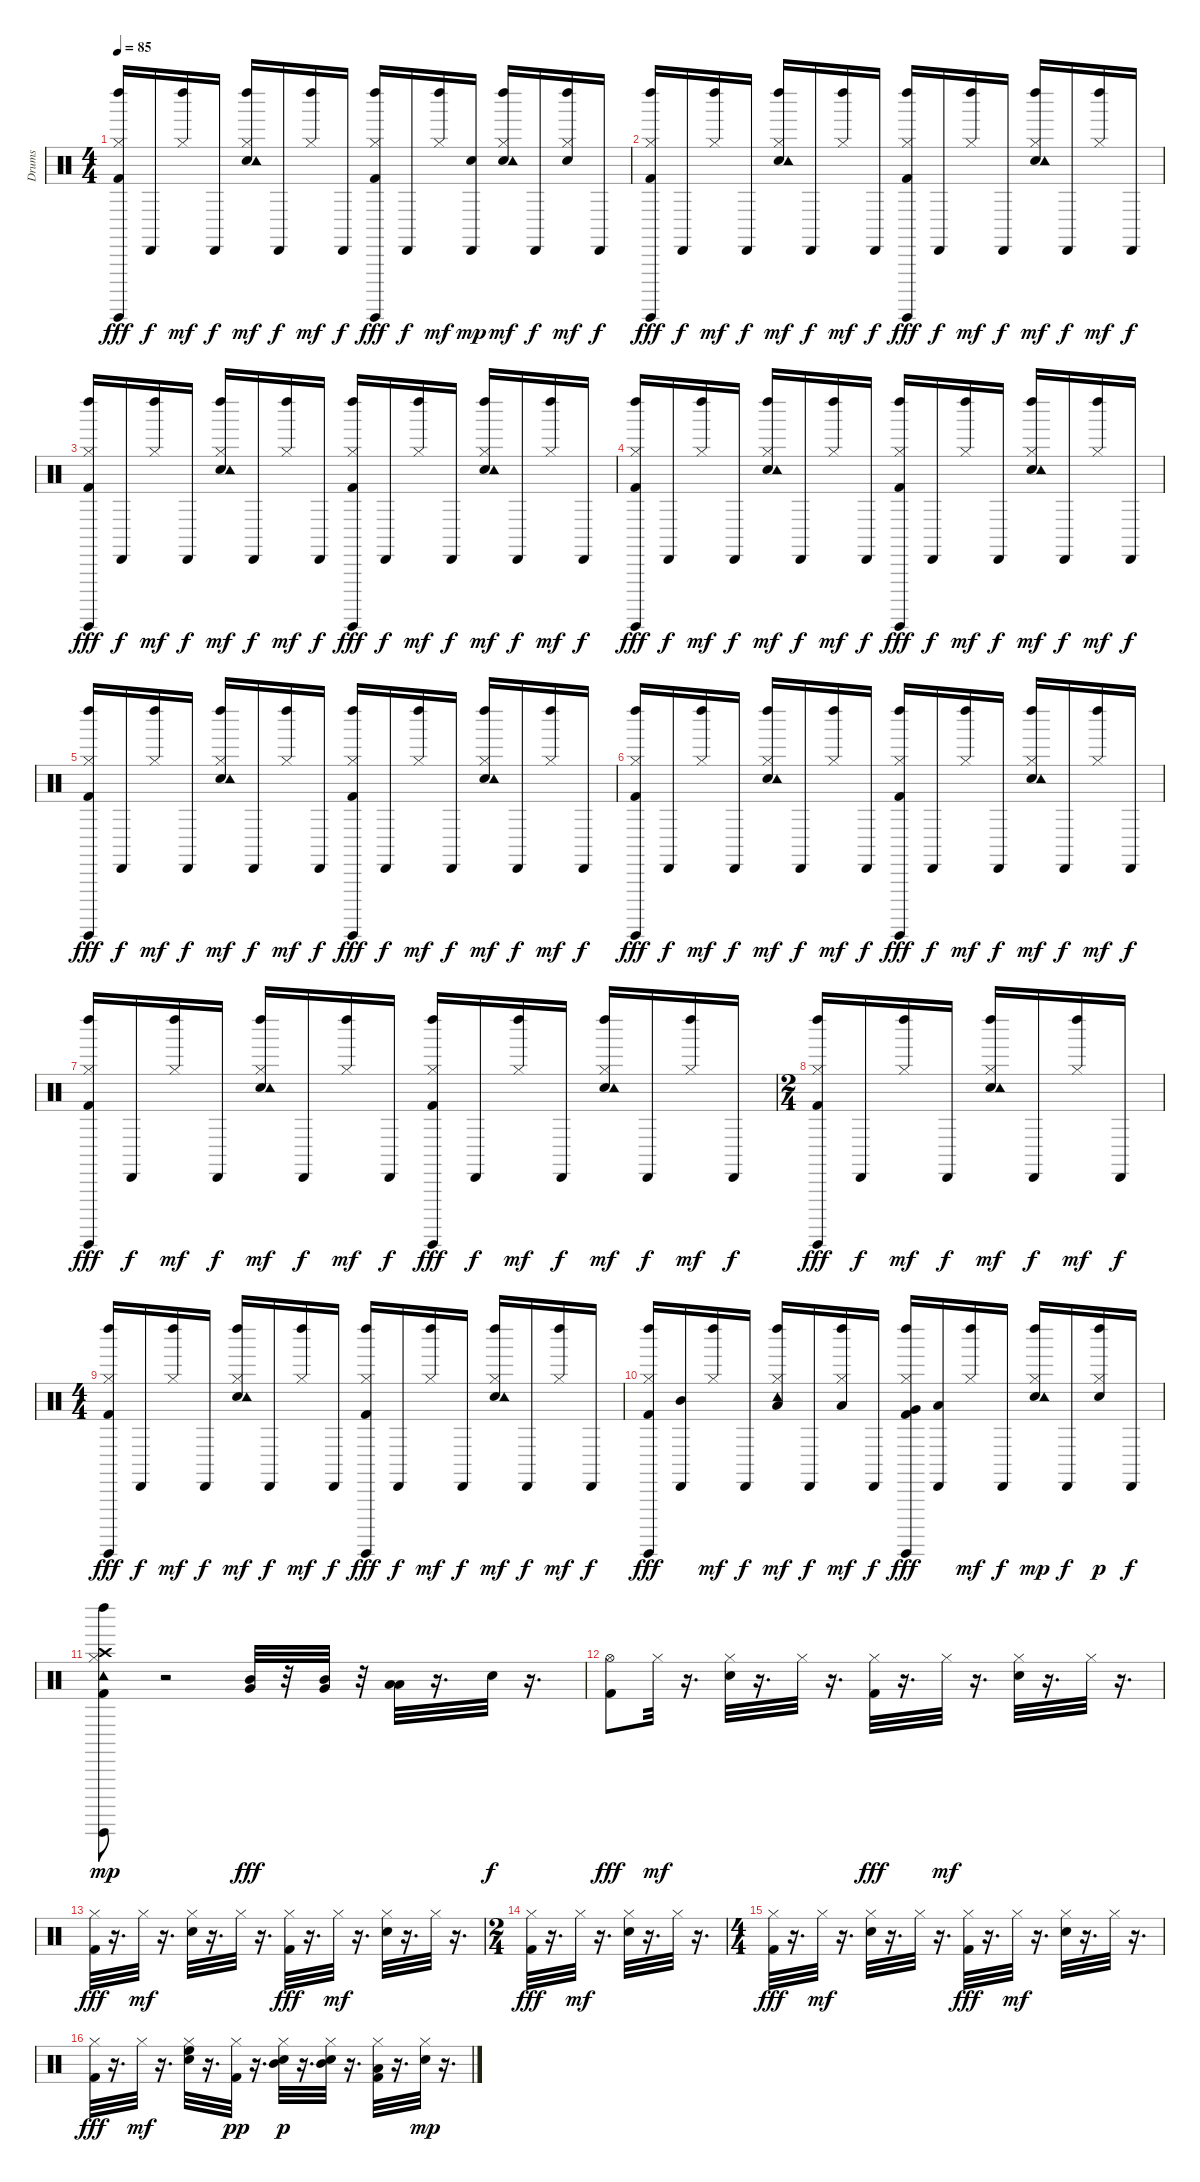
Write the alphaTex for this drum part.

\track ("Drums" "Drums") {instrument percussion}
\staff {score}
\articulation defaults
\ts (4 4)
\tempo 85
\clef neutral
\ks c
("Hi-Hat (closed)" "Kick (hit) 2" "Guiro (hit)" "Left Maraca (hit)").16{dy fff} "Cabasa (hit)".16{dy f} ("Hi-Hat (closed)" "Left Maraca (hit)").16{dy mf} "Cabasa (hit)".16{dy f} ("Hi-Hat (closed)" "Electric Snare (hit)" "Left Maraca (hit)" "Tambourine (hit)").16{dy mf} "Cabasa (hit)".16{dy f} ("Hi-Hat (closed)" "Left Maraca (hit)").16{dy mf} "Cabasa (hit)".16{dy f} ("Hi-Hat (closed)" "Kick (hit) 2" "Guiro (hit)" "Left Maraca (hit)").16{dy fff} "Cabasa (hit)".16{dy f} ("Hi-Hat (closed)" "Left Maraca (hit)").16{dy mf} ("Snare (hit) 2" "Cabasa (hit)").16{dy mp} ("Hi-Hat (closed)" "Electric Snare (hit)" "Left Maraca (hit)" "Tambourine (hit)").16{dy mf} "Cabasa (hit)".16{dy f} ("Electric Snare (hit)" "Hi-Hat (closed)" "Left Maraca (hit)").16{dy mf} "Cabasa (hit)".16{dy f} |
("Hi-Hat (closed)" "Kick (hit) 2" "Guiro (hit)" "Left Maraca (hit)").16{dy fff} "Cabasa (hit)".16{dy f} ("Hi-Hat (closed)" "Left Maraca (hit)").16{dy mf} "Cabasa (hit)".16{dy f} ("Hi-Hat (closed)" "Electric Snare (hit)" "Left Maraca (hit)" "Tambourine (hit)").16{dy mf} "Cabasa (hit)".16{dy f} ("Hi-Hat (closed)" "Left Maraca (hit)").16{dy mf} "Cabasa (hit)".16{dy f} ("Hi-Hat (closed)" "Kick (hit) 2" "Guiro (hit)" "Left Maraca (hit)").16{dy fff} "Cabasa (hit)".16{dy f} ("Hi-Hat (closed)" "Left Maraca (hit)").16{dy mf} "Cabasa (hit)".16{dy f} ("Hi-Hat (closed)" "Electric Snare (hit)" "Left Maraca (hit)" "Tambourine (hit)").16{dy mf} "Cabasa (hit)".16{dy f} ("Hi-Hat (closed)" "Left Maraca (hit)").16{dy mf} "Cabasa (hit)".16{dy f} |
("Hi-Hat (closed)" "Kick (hit) 2" "Guiro (hit)" "Left Maraca (hit)").16{dy fff} "Cabasa (hit)".16{dy f} ("Hi-Hat (closed)" "Left Maraca (hit)").16{dy mf} "Cabasa (hit)".16{dy f} ("Hi-Hat (closed)" "Electric Snare (hit)" "Left Maraca (hit)" "Tambourine (hit)").16{dy mf} "Cabasa (hit)".16{dy f} ("Hi-Hat (closed)" "Left Maraca (hit)").16{dy mf} "Cabasa (hit)".16{dy f} ("Hi-Hat (closed)" "Kick (hit) 2" "Guiro (hit)" "Left Maraca (hit)").16{dy fff} "Cabasa (hit)".16{dy f} ("Hi-Hat (closed)" "Left Maraca (hit)").16{dy mf} "Cabasa (hit)".16{dy f} ("Hi-Hat (closed)" "Electric Snare (hit)" "Left Maraca (hit)" "Tambourine (hit)").16{dy mf} "Cabasa (hit)".16{dy f} ("Hi-Hat (closed)" "Left Maraca (hit)").16{dy mf} "Cabasa (hit)".16{dy f} |
("Hi-Hat (closed)" "Kick (hit) 2" "Guiro (hit)" "Left Maraca (hit)").16{dy fff} "Cabasa (hit)".16{dy f} ("Hi-Hat (closed)" "Left Maraca (hit)").16{dy mf} "Cabasa (hit)".16{dy f} ("Hi-Hat (closed)" "Electric Snare (hit)" "Left Maraca (hit)" "Tambourine (hit)").16{dy mf} "Cabasa (hit)".16{dy f} ("Hi-Hat (closed)" "Left Maraca (hit)").16{dy mf} "Cabasa (hit)".16{dy f} ("Hi-Hat (closed)" "Kick (hit) 2" "Guiro (hit)" "Left Maraca (hit)").16{dy fff} "Cabasa (hit)".16{dy f} ("Hi-Hat (closed)" "Left Maraca (hit)").16{dy mf} "Cabasa (hit)".16{dy f} ("Hi-Hat (closed)" "Electric Snare (hit)" "Left Maraca (hit)" "Tambourine (hit)").16{dy mf} "Cabasa (hit)".16{dy f} ("Hi-Hat (closed)" "Left Maraca (hit)").16{dy mf} "Cabasa (hit)".16{dy f} |
("Hi-Hat (closed)" "Kick (hit) 2" "Guiro (hit)" "Left Maraca (hit)").16{dy fff} "Cabasa (hit)".16{dy f} ("Hi-Hat (closed)" "Left Maraca (hit)").16{dy mf} "Cabasa (hit)".16{dy f} ("Hi-Hat (closed)" "Electric Snare (hit)" "Left Maraca (hit)" "Tambourine (hit)").16{dy mf} "Cabasa (hit)".16{dy f} ("Hi-Hat (closed)" "Left Maraca (hit)").16{dy mf} "Cabasa (hit)".16{dy f} ("Hi-Hat (closed)" "Kick (hit) 2" "Guiro (hit)" "Left Maraca (hit)").16{dy fff} "Cabasa (hit)".16{dy f} ("Hi-Hat (closed)" "Left Maraca (hit)").16{dy mf} "Cabasa (hit)".16{dy f} ("Hi-Hat (closed)" "Electric Snare (hit)" "Left Maraca (hit)" "Tambourine (hit)").16{dy mf} "Cabasa (hit)".16{dy f} ("Hi-Hat (closed)" "Left Maraca (hit)").16{dy mf} "Cabasa (hit)".16{dy f} |
("Hi-Hat (closed)" "Kick (hit) 2" "Guiro (hit)" "Left Maraca (hit)").16{dy fff} "Cabasa (hit)".16{dy f} ("Hi-Hat (closed)" "Left Maraca (hit)").16{dy mf} "Cabasa (hit)".16{dy f} ("Hi-Hat (closed)" "Electric Snare (hit)" "Left Maraca (hit)" "Tambourine (hit)").16{dy mf} "Cabasa (hit)".16{dy f} ("Hi-Hat (closed)" "Left Maraca (hit)").16{dy mf} "Cabasa (hit)".16{dy f} ("Hi-Hat (closed)" "Kick (hit) 2" "Guiro (hit)" "Left Maraca (hit)").16{dy fff} "Cabasa (hit)".16{dy f} ("Hi-Hat (closed)" "Left Maraca (hit)").16{dy mf} "Cabasa (hit)".16{dy f} ("Hi-Hat (closed)" "Electric Snare (hit)" "Left Maraca (hit)" "Tambourine (hit)").16{dy mf} "Cabasa (hit)".16{dy f} ("Hi-Hat (closed)" "Left Maraca (hit)").16{dy mf} "Cabasa (hit)".16{dy f} |
("Hi-Hat (closed)" "Kick (hit) 2" "Guiro (hit)" "Left Maraca (hit)").16{dy fff} "Cabasa (hit)".16{dy f} ("Hi-Hat (closed)" "Left Maraca (hit)").16{dy mf} "Cabasa (hit)".16{dy f} ("Hi-Hat (closed)" "Electric Snare (hit)" "Left Maraca (hit)" "Tambourine (hit)").16{dy mf} "Cabasa (hit)".16{dy f} ("Hi-Hat (closed)" "Left Maraca (hit)").16{dy mf} "Cabasa (hit)".16{dy f} ("Hi-Hat (closed)" "Kick (hit) 2" "Guiro (hit)" "Left Maraca (hit)").16{dy fff} "Cabasa (hit)".16{dy f} ("Hi-Hat (closed)" "Left Maraca (hit)").16{dy mf} "Cabasa (hit)".16{dy f} ("Hi-Hat (closed)" "Electric Snare (hit)" "Left Maraca (hit)" "Tambourine (hit)").16{dy mf} "Cabasa (hit)".16{dy f} ("Hi-Hat (closed)" "Left Maraca (hit)").16{dy mf} "Cabasa (hit)".16{dy f} |
\ts (2 4)
("Hi-Hat (closed)" "Kick (hit) 2" "Guiro (hit)" "Left Maraca (hit)").16{dy fff} "Cabasa (hit)".16{dy f} ("Hi-Hat (closed)" "Left Maraca (hit)").16{dy mf} "Cabasa (hit)".16{dy f} ("Hi-Hat (closed)" "Electric Snare (hit)" "Left Maraca (hit)" "Tambourine (hit)").16{dy mf} "Cabasa (hit)".16{dy f} ("Hi-Hat (closed)" "Left Maraca (hit)").16{dy mf} "Cabasa (hit)".16{dy f} |
\ts (4 4)
("Hi-Hat (closed)" "Kick (hit) 2" "Guiro (hit)" "Left Maraca (hit)").16{dy fff} "Cabasa (hit)".16{dy f} ("Hi-Hat (closed)" "Left Maraca (hit)").16{dy mf} "Cabasa (hit)".16{dy f} ("Hi-Hat (closed)" "Electric Snare (hit)" "Left Maraca (hit)" "Tambourine (hit)").16{dy mf} "Cabasa (hit)".16{dy f} ("Hi-Hat (closed)" "Left Maraca (hit)").16{dy mf} "Cabasa (hit)".16{dy f} ("Hi-Hat (closed)" "Kick (hit) 2" "Guiro (hit)" "Left Maraca (hit)").16{dy fff} "Cabasa (hit)".16{dy f} ("Hi-Hat (closed)" "Left Maraca (hit)").16{dy mf} "Cabasa (hit)".16{dy f} ("Hi-Hat (closed)" "Electric Snare (hit)" "Left Maraca (hit)" "Tambourine (hit)").16{dy mf} "Cabasa (hit)".16{dy f} ("Hi-Hat (closed)" "Left Maraca (hit)").16{dy mf} "Cabasa (hit)".16{dy f} |
("Hi-Hat (closed)" "Kick (hit) 2" "Guiro (hit)" "Left Maraca (hit)").16{dy fff} ("Mid Tom (hit)" "Cabasa (hit)").16 ("Hi-Hat (closed)" "Left Maraca (hit)").16{dy mf} "Cabasa (hit)".16{dy f} ("Low Tom (hit)" "Hi-Hat (closed)" "Left Maraca (hit)" "Tambourine (hit)").16{dy mf} "Cabasa (hit)".16{dy f} ("Low Tom (hit)" "Hi-Hat (closed)" "Left Maraca (hit)").16{dy mf} "Cabasa (hit)".16{dy f} ("Very Low Tom (hit)" "Hi-Hat (closed)" "Kick (hit) 2" "Guiro (hit)" "Left Maraca (hit)").16{dy fff} ("Low Tom (hit)" "Cabasa (hit)").16 ("Hi-Hat (closed)" "Left Maraca (hit)").16{dy mf} "Cabasa (hit)".16{dy f} ("Hi-Hat (closed)" "Electric Snare (hit)" "Left Maraca (hit)" "Tambourine (hit)").16{dy mp} "Cabasa (hit)".16{dy f} ("Hi-Hat (closed)" "Snare (hit) 2" "Left Maraca (hit)").16{dy p} "Cabasa (hit)".16{dy f} |
("Crash high (hit)" "Hi-Hat (closed)" "Kick (hit) 2" "Tambourine (hit)" "Guiro (hit)" "Left Maraca (hit)").8{dy mp} r.2 ("Mid Tom (hit)" "Very Low Tom (hit)").32{dy fff} r.32 ("Mid Tom (hit)" "Very Low Tom (hit)").32 r.32 ("Low Tom (hit)" "Low Floor Tom (hit)").32 r.16{d} "Snare (hit) 2".32{dy f} r.16{d} |
("Hi-Hat (open)" "Kick (hit) 2").8{dy fff} "Hi-Hat (closed)".32{dy mf} r.16{d} ("Hi-Hat (closed)" "Electric Snare (hit)").32 r.16{d} "Hi-Hat (closed)".32 r.16{d} ("Hi-Hat (closed)" "Kick (hit) 2").32{dy fff} r.16{d} "Hi-Hat (closed)".32{dy mf} r.16{d} ("Hi-Hat (closed)" "Electric Snare (hit)").32 r.16{d} "Hi-Hat (closed)".32 r.16{d} |
("Hi-Hat (closed)" "Kick (hit) 2").32{dy fff} r.16{d} "Hi-Hat (closed)".32{dy mf} r.16{d} ("Hi-Hat (closed)" "Electric Snare (hit)").32 r.16{d} "Hi-Hat (closed)".32 r.16{d} ("Hi-Hat (closed)" "Kick (hit) 2").32{dy fff} r.16{d} "Hi-Hat (closed)".32{dy mf} r.16{d} ("Hi-Hat (closed)" "Electric Snare (hit)").32 r.16{d} "Hi-Hat (closed)".32 r.16{d} |
\ts (2 4)
("Hi-Hat (closed)" "Kick (hit) 2").32{dy fff} r.16{d} "Hi-Hat (closed)".32{dy mf} r.16{d} ("Hi-Hat (closed)" "Electric Snare (hit)").32 r.16{d} "Hi-Hat (closed)".32 r.16{d} |
\ts (4 4)
("Hi-Hat (closed)" "Kick (hit) 2").32{dy fff} r.16{d} "Hi-Hat (closed)".32{dy mf} r.16{d} ("Hi-Hat (closed)" "Electric Snare (hit)").32 r.16{d} "Hi-Hat (closed)".32 r.16{d} ("Hi-Hat (closed)" "Kick (hit) 2").32{dy fff} r.16{d} "Hi-Hat (closed)".32{dy mf} r.16{d} ("Hi-Hat (closed)" "Electric Snare (hit)").32 r.16{d} "Hi-Hat (closed)".32 r.16{d} |
("Hi-Hat (closed)" "Kick (hit) 2").32{dy fff} r.16{d} "Hi-Hat (closed)".32{dy mf} r.16{d} ("High Floor Tom (hit)" "Hi-Hat (closed)" "Electric Snare (hit)").32 r.16{d} ("Hi-Hat (closed)" "Kick (hit) 2").32{dy pp} r.16{d} ("Mid Tom (hit)" "Hi-Hat (closed)" "Electric Snare (hit)").32{dy p} r.16{d} ("Mid Tom (hit)" "Hi-Hat (closed)" "Electric Snare (hit)").32 r.16{d} ("Low Tom (hit)" "Hi-Hat (closed)" "Kick (hit) 2").32 r.16{d} ("Hi-Hat (closed)" "Electric Snare (hit)").32{dy mp} r.16{d}
